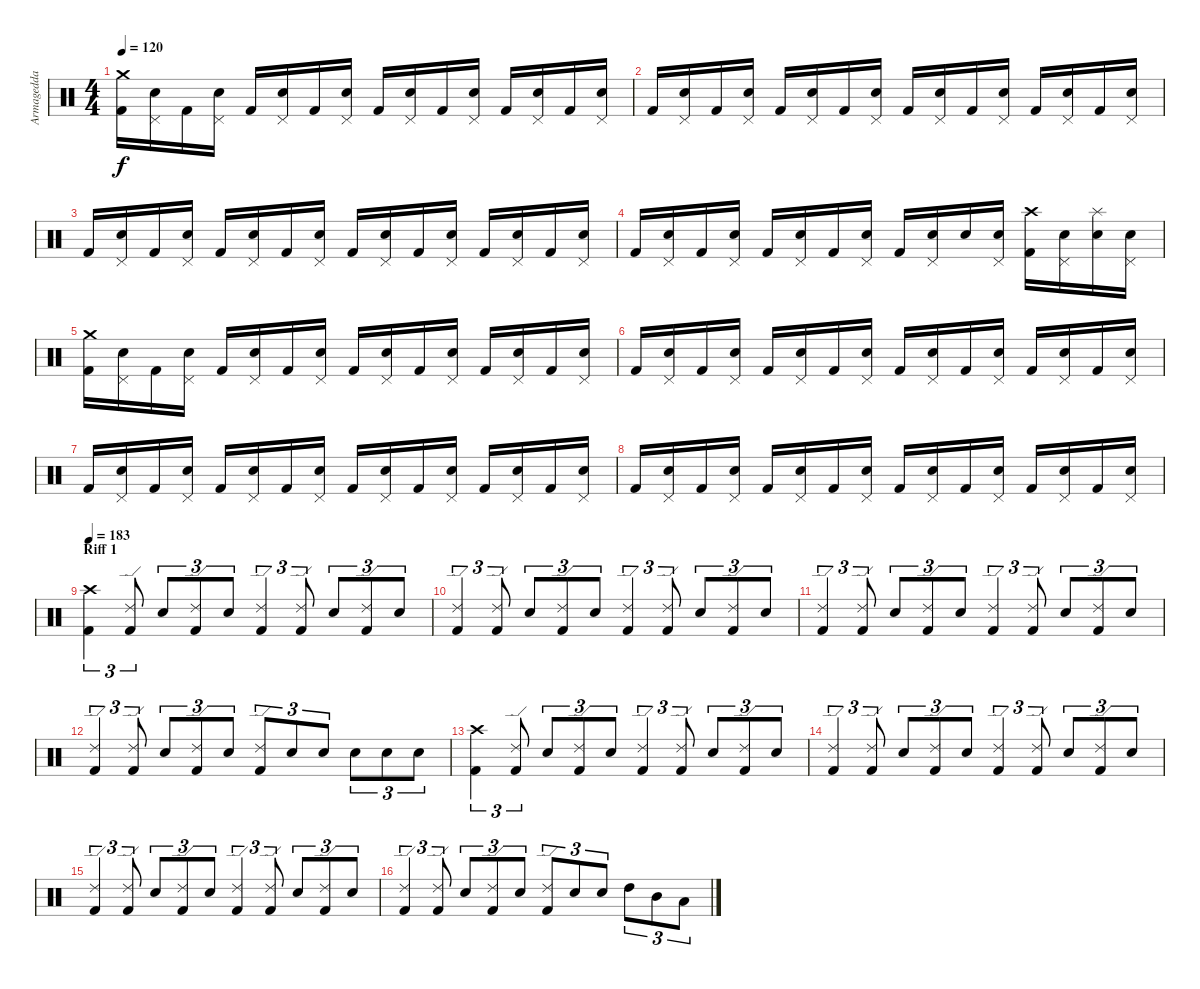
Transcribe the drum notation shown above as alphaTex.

\track ("Armagedda" "Armagedda") {instrument percussion}
\staff {score}
\articulation defaults
\ts (4 4)
\tempo 120
\clef neutral
\ks c
("Crash medium (hit)" "Kick (hit) 2").16{dy f} ("Pedal Hi-Hat (hit)" "Electric Snare (hit)").16 "Kick (hit) 2".16 ("Pedal Hi-Hat (hit)" "Electric Snare (hit)").16 "Kick (hit) 2".16 ("Pedal Hi-Hat (hit)" "Electric Snare (hit)").16 "Kick (hit) 2".16 ("Pedal Hi-Hat (hit)" "Electric Snare (hit)").16 "Kick (hit) 2".16 ("Pedal Hi-Hat (hit)" "Electric Snare (hit)").16 "Kick (hit) 2".16 ("Pedal Hi-Hat (hit)" "Electric Snare (hit)").16 "Kick (hit) 2".16 ("Pedal Hi-Hat (hit)" "Electric Snare (hit)").16 "Kick (hit) 2".16 ("Pedal Hi-Hat (hit)" "Electric Snare (hit)").16 |
"Kick (hit) 2".16 ("Pedal Hi-Hat (hit)" "Electric Snare (hit)").16 "Kick (hit) 2".16 ("Pedal Hi-Hat (hit)" "Electric Snare (hit)").16 "Kick (hit) 2".16 ("Pedal Hi-Hat (hit)" "Electric Snare (hit)").16 "Kick (hit) 2".16 ("Pedal Hi-Hat (hit)" "Electric Snare (hit)").16 "Kick (hit) 2".16 ("Pedal Hi-Hat (hit)" "Electric Snare (hit)").16 "Kick (hit) 2".16 ("Pedal Hi-Hat (hit)" "Electric Snare (hit)").16 "Kick (hit) 2".16 ("Pedal Hi-Hat (hit)" "Electric Snare (hit)").16 "Kick (hit) 2".16 ("Pedal Hi-Hat (hit)" "Electric Snare (hit)").16 |
"Kick (hit) 2".16 ("Pedal Hi-Hat (hit)" "Electric Snare (hit)").16 "Kick (hit) 2".16 ("Pedal Hi-Hat (hit)" "Electric Snare (hit)").16 "Kick (hit) 2".16 ("Pedal Hi-Hat (hit)" "Electric Snare (hit)").16 "Kick (hit) 2".16 ("Pedal Hi-Hat (hit)" "Electric Snare (hit)").16 "Kick (hit) 2".16 ("Pedal Hi-Hat (hit)" "Electric Snare (hit)").16 "Kick (hit) 2".16 ("Pedal Hi-Hat (hit)" "Electric Snare (hit)").16 "Kick (hit) 2".16 ("Pedal Hi-Hat (hit)" "Electric Snare (hit)").16 "Kick (hit) 2".16 ("Pedal Hi-Hat (hit)" "Electric Snare (hit)").16 |
"Kick (hit) 2".16 ("Pedal Hi-Hat (hit)" "Electric Snare (hit)").16 "Kick (hit) 2".16 ("Pedal Hi-Hat (hit)" "Electric Snare (hit)").16 "Kick (hit) 2".16 ("Pedal Hi-Hat (hit)" "Electric Snare (hit)").16 "Kick (hit) 2".16 ("Pedal Hi-Hat (hit)" "Electric Snare (hit)").16 "Kick (hit) 2".16 ("Pedal Hi-Hat (hit)" "Electric Snare (hit)").16 "Electric Snare (hit)".16 ("Pedal Hi-Hat (hit)" "Electric Snare (hit)").16 ("Crash high (hit)" "Kick (hit) 2").16 ("Pedal Hi-Hat (hit)" "Electric Snare (hit)").16 ("Splash (hit)" "Electric Snare (hit)").16 ("Pedal Hi-Hat (hit)" "Electric Snare (hit)").16 |
("Crash medium (hit)" "Kick (hit) 2").16 ("Pedal Hi-Hat (hit)" "Electric Snare (hit)").16 "Kick (hit) 2".16 ("Pedal Hi-Hat (hit)" "Electric Snare (hit)").16 "Kick (hit) 2".16 ("Pedal Hi-Hat (hit)" "Electric Snare (hit)").16 "Kick (hit) 2".16 ("Pedal Hi-Hat (hit)" "Electric Snare (hit)").16 "Kick (hit) 2".16 ("Pedal Hi-Hat (hit)" "Electric Snare (hit)").16 "Kick (hit) 2".16 ("Pedal Hi-Hat (hit)" "Electric Snare (hit)").16 "Kick (hit) 2".16 ("Pedal Hi-Hat (hit)" "Electric Snare (hit)").16 "Kick (hit) 2".16 ("Pedal Hi-Hat (hit)" "Electric Snare (hit)").16 |
"Kick (hit) 2".16 ("Pedal Hi-Hat (hit)" "Electric Snare (hit)").16 "Kick (hit) 2".16 ("Pedal Hi-Hat (hit)" "Electric Snare (hit)").16 "Kick (hit) 2".16 ("Pedal Hi-Hat (hit)" "Electric Snare (hit)").16 "Kick (hit) 2".16 ("Pedal Hi-Hat (hit)" "Electric Snare (hit)").16 "Kick (hit) 2".16 ("Pedal Hi-Hat (hit)" "Electric Snare (hit)").16 "Kick (hit) 2".16 ("Pedal Hi-Hat (hit)" "Electric Snare (hit)").16 "Kick (hit) 2".16 ("Pedal Hi-Hat (hit)" "Electric Snare (hit)").16 "Kick (hit) 2".16 ("Pedal Hi-Hat (hit)" "Electric Snare (hit)").16 |
"Kick (hit) 2".16 ("Pedal Hi-Hat (hit)" "Electric Snare (hit)").16 "Kick (hit) 2".16 ("Pedal Hi-Hat (hit)" "Electric Snare (hit)").16 "Kick (hit) 2".16 ("Pedal Hi-Hat (hit)" "Electric Snare (hit)").16 "Kick (hit) 2".16 ("Pedal Hi-Hat (hit)" "Electric Snare (hit)").16 "Kick (hit) 2".16 ("Pedal Hi-Hat (hit)" "Electric Snare (hit)").16 "Kick (hit) 2".16 ("Pedal Hi-Hat (hit)" "Electric Snare (hit)").16 "Kick (hit) 2".16 ("Pedal Hi-Hat (hit)" "Electric Snare (hit)").16 "Kick (hit) 2".16 ("Pedal Hi-Hat (hit)" "Electric Snare (hit)").16 |
"Kick (hit) 2".16 ("Pedal Hi-Hat (hit)" "Electric Snare (hit)").16 "Kick (hit) 2".16 ("Pedal Hi-Hat (hit)" "Electric Snare (hit)").16 "Kick (hit) 2".16 ("Pedal Hi-Hat (hit)" "Electric Snare (hit)").16 "Kick (hit) 2".16 ("Pedal Hi-Hat (hit)" "Electric Snare (hit)").16 "Kick (hit) 2".16 ("Pedal Hi-Hat (hit)" "Electric Snare (hit)").16 "Kick (hit) 2".16 ("Pedal Hi-Hat (hit)" "Electric Snare (hit)").16 "Kick (hit) 2".16 ("Pedal Hi-Hat (hit)" "Electric Snare (hit)").16 "Kick (hit) 2".16 ("Pedal Hi-Hat (hit)" "Electric Snare (hit)").16 |
\section ("" "Riff 1")
\tempo 183
("Crash high (hit)" "Kick (hit) 2").4{tu (3 2)} ("Ride (edge) 2" "Kick (hit) 2").8{tu (3 2)} "Electric Snare (hit)".8{tu (3 2)} ("Ride (edge) 2" "Kick (hit) 2").8{tu (3 2)} "Electric Snare (hit)".8{tu (3 2)} ("Ride (edge) 2" "Kick (hit) 2").4{tu (3 2)} ("Ride (edge) 2" "Kick (hit) 2").8{tu (3 2)} "Electric Snare (hit)".8{tu (3 2)} ("Ride (edge) 2" "Kick (hit) 2").8{tu (3 2)} "Electric Snare (hit)".8{tu (3 2)} |
("Ride (edge) 2" "Kick (hit) 2").4{tu (3 2)} ("Ride (edge) 2" "Kick (hit) 2").8{tu (3 2)} "Electric Snare (hit)".8{tu (3 2)} ("Ride (edge) 2" "Kick (hit) 2").8{tu (3 2)} "Electric Snare (hit)".8{tu (3 2)} ("Ride (edge) 2" "Kick (hit) 2").4{tu (3 2)} ("Ride (edge) 2" "Kick (hit) 2").8{tu (3 2)} "Electric Snare (hit)".8{tu (3 2)} ("Ride (edge) 2" "Kick (hit) 2").8{tu (3 2)} "Electric Snare (hit)".8{tu (3 2)} |
("Ride (edge) 2" "Kick (hit) 2").4{tu (3 2)} ("Ride (edge) 2" "Kick (hit) 2").8{tu (3 2)} "Electric Snare (hit)".8{tu (3 2)} ("Ride (edge) 2" "Kick (hit) 2").8{tu (3 2)} "Electric Snare (hit)".8{tu (3 2)} ("Ride (edge) 2" "Kick (hit) 2").4{tu (3 2)} ("Ride (edge) 2" "Kick (hit) 2").8{tu (3 2)} "Electric Snare (hit)".8{tu (3 2)} ("Ride (edge) 2" "Kick (hit) 2").8{tu (3 2)} "Electric Snare (hit)".8{tu (3 2)} |
("Ride (edge) 2" "Kick (hit) 2").4{tu (3 2)} ("Ride (edge) 2" "Kick (hit) 2").8{tu (3 2)} "Electric Snare (hit)".8{tu (3 2)} ("Ride (edge) 2" "Kick (hit) 2").8{tu (3 2)} "Electric Snare (hit)".8{tu (3 2)} ("Ride (edge) 2" "Kick (hit) 2").8{tu (3 2)} "Electric Snare (hit)".8{tu (3 2)} "Electric Snare (hit)".8{tu (3 2)} "Electric Snare (hit)".8{tu (3 2)} "Electric Snare (hit)".8{tu (3 2)} "Electric Snare (hit)".8{tu (3 2)} |
("Crash high (hit)" "Kick (hit) 2").4{tu (3 2)} ("Ride (edge) 2" "Kick (hit) 2").8{tu (3 2)} "Electric Snare (hit)".8{tu (3 2)} ("Ride (edge) 2" "Kick (hit) 2").8{tu (3 2)} "Electric Snare (hit)".8{tu (3 2)} ("Ride (edge) 2" "Kick (hit) 2").4{tu (3 2)} ("Ride (edge) 2" "Kick (hit) 2").8{tu (3 2)} "Electric Snare (hit)".8{tu (3 2)} ("Ride (edge) 2" "Kick (hit) 2").8{tu (3 2)} "Electric Snare (hit)".8{tu (3 2)} |
("Ride (edge) 2" "Kick (hit) 2").4{tu (3 2)} ("Ride (edge) 2" "Kick (hit) 2").8{tu (3 2)} "Electric Snare (hit)".8{tu (3 2)} ("Ride (edge) 2" "Kick (hit) 2").8{tu (3 2)} "Electric Snare (hit)".8{tu (3 2)} ("Ride (edge) 2" "Kick (hit) 2").4{tu (3 2)} ("Ride (edge) 2" "Kick (hit) 2").8{tu (3 2)} "Electric Snare (hit)".8{tu (3 2)} ("Ride (edge) 2" "Kick (hit) 2").8{tu (3 2)} "Electric Snare (hit)".8{tu (3 2)} |
("Ride (edge) 2" "Kick (hit) 2").4{tu (3 2)} ("Ride (edge) 2" "Kick (hit) 2").8{tu (3 2)} "Electric Snare (hit)".8{tu (3 2)} ("Ride (edge) 2" "Kick (hit) 2").8{tu (3 2)} "Electric Snare (hit)".8{tu (3 2)} ("Ride (edge) 2" "Kick (hit) 2").4{tu (3 2)} ("Ride (edge) 2" "Kick (hit) 2").8{tu (3 2)} "Electric Snare (hit)".8{tu (3 2)} ("Ride (edge) 2" "Kick (hit) 2").8{tu (3 2)} "Electric Snare (hit)".8{tu (3 2)} |
("Ride (edge) 2" "Kick (hit) 2").4{tu (3 2)} ("Ride (edge) 2" "Kick (hit) 2").8{tu (3 2)} "Electric Snare (hit)".8{tu (3 2)} ("Ride (edge) 2" "Kick (hit) 2").8{tu (3 2)} "Electric Snare (hit)".8{tu (3 2)} ("Ride (edge) 2" "Kick (hit) 2").8{tu (3 2)} "Electric Snare (hit)".8{tu (3 2)} "Electric Snare (hit)".8{tu (3 2)} "High Tom (hit)".8{tu (3 2)} "Mid Tom (hit)".8{tu (3 2)} "Low Tom (hit)".8{tu (3 2)}
